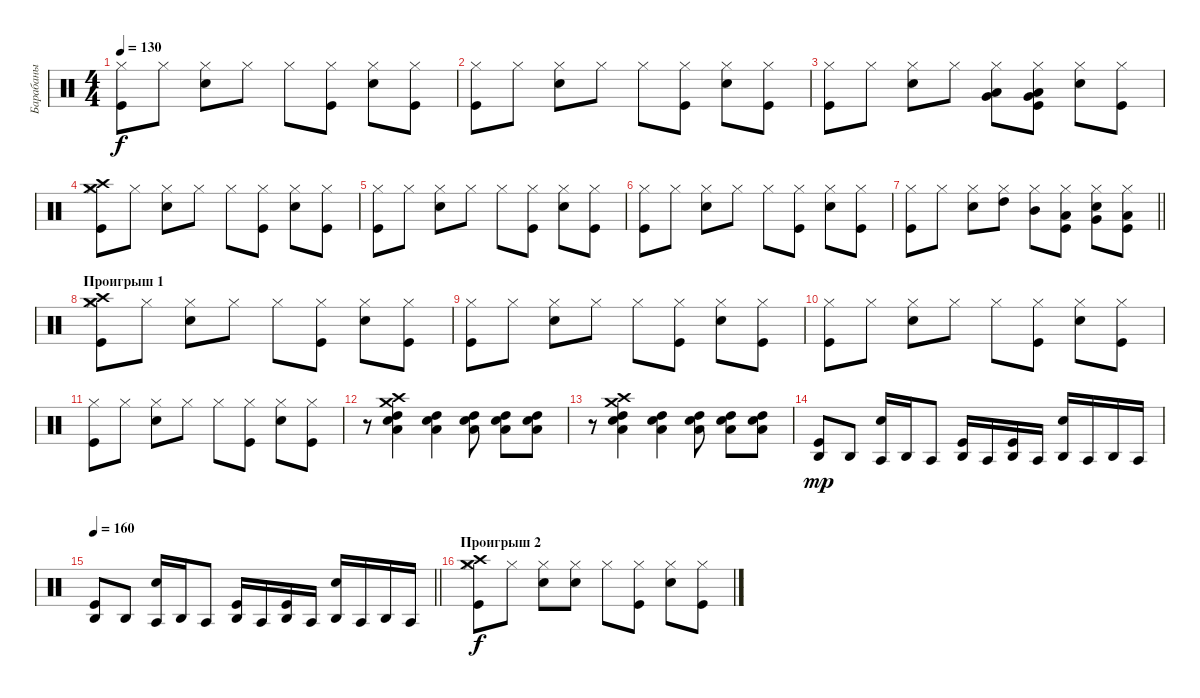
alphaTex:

\track ("Барабаны" "Барабаны") {instrument percussion}
\staff {score}
\articulation defaults
\ts (4 4)
\tempo 130
\clef neutral
\ks c
("Kick (hit)" "Hi-Hat (closed)").8{dy f} "Hi-Hat (closed)".8 ("Snare (hit) 2" "Hi-Hat (closed)").8 "Hi-Hat (closed)".8 "Hi-Hat (closed)".8 ("Kick (hit)" "Hi-Hat (closed)").8 ("Snare (hit) 2" "Hi-Hat (closed)").8 ("Kick (hit)" "Hi-Hat (closed)").8 |
("Kick (hit)" "Hi-Hat (closed)").8 "Hi-Hat (closed)".8 ("Snare (hit) 2" "Hi-Hat (closed)").8 "Hi-Hat (closed)".8 "Hi-Hat (closed)".8 ("Kick (hit)" "Hi-Hat (closed)").8 ("Snare (hit) 2" "Hi-Hat (closed)").8 ("Kick (hit)" "Hi-Hat (closed)").8 |
("Kick (hit)" "Hi-Hat (closed)").8 "Hi-Hat (closed)".8 ("Snare (hit) 2" "Hi-Hat (closed)").8 "Hi-Hat (closed)".8 ("Hi-Hat (closed)" "Low Floor Tom (hit)" "Very Low Tom (hit)").8 ("Kick (hit)" "Hi-Hat (closed)" "Low Floor Tom (hit)" "Very Low Tom (hit)").8 ("Snare (hit) 2" "Hi-Hat (closed)").8 ("Kick (hit)" "Hi-Hat (closed)").8 |
("Kick (hit)" "Hi-Hat (closed)" "Crash high (hit)" "Crash medium (hit)").8 "Hi-Hat (closed)".8 ("Snare (hit) 2" "Hi-Hat (closed)").8 "Hi-Hat (closed)".8 "Hi-Hat (closed)".8 ("Kick (hit)" "Hi-Hat (closed)").8 ("Snare (hit) 2" "Hi-Hat (closed)").8 ("Kick (hit)" "Hi-Hat (closed)").8 |
("Kick (hit)" "Hi-Hat (closed)").8 "Hi-Hat (closed)".8 ("Snare (hit) 2" "Hi-Hat (closed)").8 "Hi-Hat (closed)".8 "Hi-Hat (closed)".8 ("Kick (hit)" "Hi-Hat (closed)").8 ("Snare (hit) 2" "Hi-Hat (closed)").8 ("Kick (hit)" "Hi-Hat (closed)").8 |
("Kick (hit)" "Hi-Hat (closed)").8 "Hi-Hat (closed)".8 ("Snare (hit) 2" "Hi-Hat (closed)").8 "Hi-Hat (closed)".8 "Hi-Hat (closed)".8 ("Kick (hit)" "Hi-Hat (closed)").8 ("Snare (hit) 2" "Hi-Hat (closed)").8 ("Kick (hit)" "Hi-Hat (closed)").8 |
\barLineRight lightlight
("Kick (hit)" "Hi-Hat (closed)").8 "Hi-Hat (closed)".8 ("Snare (hit) 2" "Hi-Hat (closed)").8 ("Hi-Hat (closed)" "High Tom (hit)").8 ("Hi-Hat (closed)" "Mid Tom (hit)").8 ("Kick (hit)" "Hi-Hat (closed)" "Low Tom (hit)").8 ("Snare (hit) 2" "Hi-Hat (closed)" "Very Low Tom (hit)").8 ("Kick (hit)" "Hi-Hat (closed)" "Low Floor Tom (hit)").8 |
\section ("" "Проигрыш 1")
("Kick (hit)" "Hi-Hat (closed)" "Crash high (hit)" "Crash medium (hit)").8 "Hi-Hat (closed)".8 ("Snare (hit) 2" "Hi-Hat (closed)").8 "Hi-Hat (closed)".8 "Hi-Hat (closed)".8 ("Kick (hit)" "Hi-Hat (closed)").8 ("Snare (hit) 2" "Hi-Hat (closed)").8 ("Kick (hit)" "Hi-Hat (closed)").8 |
("Kick (hit)" "Hi-Hat (closed)").8 "Hi-Hat (closed)".8 ("Snare (hit) 2" "Hi-Hat (closed)").8 "Hi-Hat (closed)".8 "Hi-Hat (closed)".8 ("Kick (hit)" "Hi-Hat (closed)").8 ("Snare (hit) 2" "Hi-Hat (closed)").8 ("Kick (hit)" "Hi-Hat (closed)").8 |
("Kick (hit)" "Hi-Hat (closed)").8 "Hi-Hat (closed)".8 ("Snare (hit) 2" "Hi-Hat (closed)").8 "Hi-Hat (closed)".8 "Hi-Hat (closed)".8 ("Kick (hit)" "Hi-Hat (closed)").8 ("Snare (hit) 2" "Hi-Hat (closed)").8 ("Kick (hit)" "Hi-Hat (closed)").8 |
("Kick (hit)" "Hi-Hat (closed)").8 "Hi-Hat (closed)".8 ("Snare (hit) 2" "Hi-Hat (closed)").8 "Hi-Hat (closed)".8 "Hi-Hat (closed)".8 ("Kick (hit)" "Hi-Hat (closed)").8 ("Snare (hit) 2" "Hi-Hat (closed)").8 ("Kick (hit)" "Hi-Hat (closed)").8 |
r.8 ("Snare (hit) 2" "Low Floor Tom (hit)" "High Tom (hit)" "Crash high (hit)" "Crash medium (hit)").4 ("Snare (hit) 2" "Low Floor Tom (hit)" "High Tom (hit)").4 ("Snare (hit) 2" "Low Floor Tom (hit)" "High Tom (hit)").8 ("Snare (hit) 2" "Low Floor Tom (hit)" "High Tom (hit)").8 ("Snare (hit) 2" "Low Floor Tom (hit)" "High Tom (hit)").8 |
r.8 ("Snare (hit) 2" "Low Floor Tom (hit)" "High Tom (hit)" "Crash high (hit)" "Crash medium (hit)").4 ("Snare (hit) 2" "Low Floor Tom (hit)" "High Tom (hit)").4 ("Snare (hit) 2" "Low Floor Tom (hit)" "High Tom (hit)").8 ("Snare (hit) 2" "Low Floor Tom (hit)" "High Tom (hit)").8 ("Snare (hit) 2" "Low Floor Tom (hit)" "High Tom (hit)").8 |
("Kick (hit)" "Agogo high (hit)").8{dy mp} "Agogo high (hit)".8 ("Snare (hit) 2" "Agogo tow (hit)").16 "Agogo high (hit)".16 "Agogo tow (hit)".8 ("Kick (hit)" "Agogo high (hit)").16 "Agogo tow (hit)".16 ("Kick (hit)" "Agogo high (hit)").16 "Agogo tow (hit)".16 ("Snare (hit) 2" "Agogo high (hit)").16 "Agogo tow (hit)".16 "Agogo high (hit)".16 "Agogo tow (hit)".16 |
\tempo 160
\barLineRight lightlight
("Kick (hit)" "Agogo high (hit)").8 "Agogo high (hit)".8 ("Snare (hit) 2" "Agogo tow (hit)").16 "Agogo high (hit)".16 "Agogo tow (hit)".8 ("Kick (hit)" "Agogo high (hit)").16 "Agogo tow (hit)".16 ("Kick (hit)" "Agogo high (hit)").16 "Agogo tow (hit)".16 ("Snare (hit) 2" "Agogo high (hit)").16 "Agogo tow (hit)".16 "Agogo high (hit)".16 "Agogo tow (hit)".16 |
\section ("" "Проигрыш 2")
("Kick (hit)" "Hi-Hat (closed)" "Crash high (hit)" "Crash medium (hit)").8{dy f} "Hi-Hat (closed)".8 ("Snare (hit) 2" "Hi-Hat (closed)").8 ("Snare (hit) 2" "Hi-Hat (closed)").8 "Hi-Hat (closed)".8 ("Kick (hit)" "Hi-Hat (closed)").8 ("Snare (hit) 2" "Hi-Hat (closed)").8 ("Kick (hit)" "Hi-Hat (closed)").8
